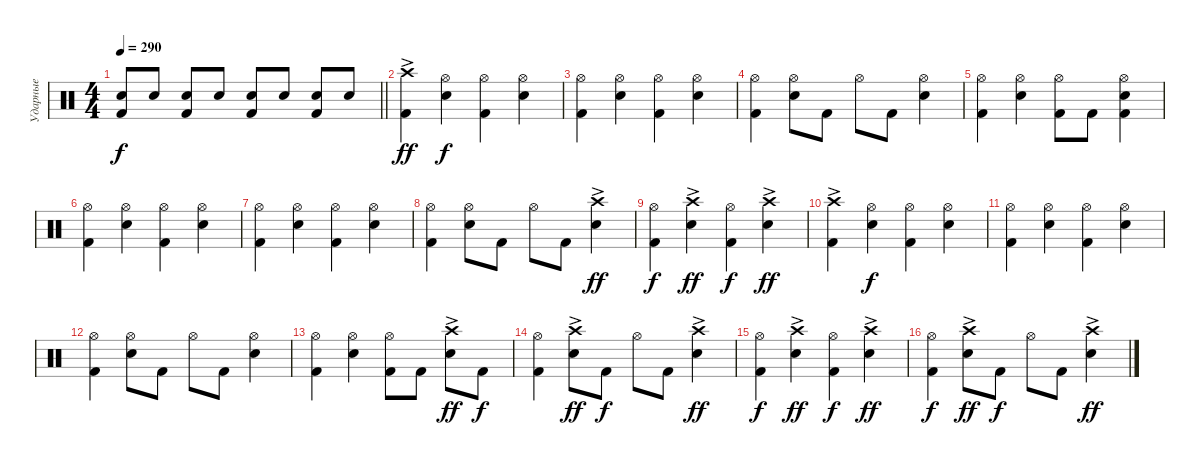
\track ("Ударные" "Ударные") {instrument percussion}
\staff {score}
\articulation defaults
\ts (4 4)
\tempo 290
\clef neutral
\barLineRight lightlight
\ks c
("Kick (hit) 2" "Snare (hit) 2").8{dy f} "Snare (hit) 2".8 ("Kick (hit) 2" "Snare (hit) 2").8 "Snare (hit) 2".8 ("Kick (hit) 2" "Snare (hit) 2").8 "Snare (hit) 2".8 ("Kick (hit) 2" "Snare (hit) 2").8 "Snare (hit) 2".8 |
("Kick (hit) 2" "Crash high (hit)"{ac}).4{dy ff} ("Snare (hit) 2" "Hi-Hat (open)").4{dy f} ("Kick (hit) 2" "Hi-Hat (open)").4 ("Snare (hit) 2" "Hi-Hat (open)").4 |
("Kick (hit) 2" "Hi-Hat (open)").4 ("Snare (hit) 2" "Hi-Hat (open)").4 ("Kick (hit) 2" "Hi-Hat (open)").4 ("Snare (hit) 2" "Hi-Hat (open)").4 |
("Kick (hit) 2" "Hi-Hat (open)").4 ("Snare (hit) 2" "Hi-Hat (open)").8 "Kick (hit) 2".8 "Hi-Hat (open)".8 "Kick (hit) 2".8 ("Snare (hit) 2" "Hi-Hat (open)").4 |
("Kick (hit) 2" "Hi-Hat (open)").4 ("Snare (hit) 2" "Hi-Hat (open)").4 ("Kick (hit) 2" "Hi-Hat (open)").8 "Kick (hit) 2".8 ("Kick (hit) 2" "Snare (hit) 2" "Hi-Hat (open)").4 |
("Kick (hit) 2" "Hi-Hat (open)").4 ("Snare (hit) 2" "Hi-Hat (open)").4 ("Kick (hit) 2" "Hi-Hat (open)").4 ("Snare (hit) 2" "Hi-Hat (open)").4 |
("Kick (hit) 2" "Hi-Hat (open)").4 ("Snare (hit) 2" "Hi-Hat (open)").4 ("Kick (hit) 2" "Hi-Hat (open)").4 ("Snare (hit) 2" "Hi-Hat (open)").4 |
("Kick (hit) 2" "Hi-Hat (open)").4 ("Snare (hit) 2" "Hi-Hat (open)").8 "Kick (hit) 2".8 "Hi-Hat (open)".8 "Kick (hit) 2".8 ("Snare (hit) 2" "Crash high (hit)"{ac}).4{dy ff} |
("Kick (hit) 2" "Hi-Hat (open)").4{dy f} ("Snare (hit) 2" "Crash high (hit)"{ac}).4{dy ff} ("Kick (hit) 2" "Hi-Hat (open)").4{dy f} ("Snare (hit) 2" "Crash high (hit)"{ac}).4{dy ff} |
("Kick (hit) 2" "Crash high (hit)"{ac}).4 ("Snare (hit) 2" "Hi-Hat (open)").4{dy f} ("Kick (hit) 2" "Hi-Hat (open)").4 ("Snare (hit) 2" "Hi-Hat (open)").4 |
("Kick (hit) 2" "Hi-Hat (open)").4 ("Snare (hit) 2" "Hi-Hat (open)").4 ("Kick (hit) 2" "Hi-Hat (open)").4 ("Snare (hit) 2" "Hi-Hat (open)").4 |
("Kick (hit) 2" "Hi-Hat (open)").4 ("Snare (hit) 2" "Hi-Hat (open)").8 "Kick (hit) 2".8 "Hi-Hat (open)".8 "Kick (hit) 2".8 ("Snare (hit) 2" "Hi-Hat (open)").4 |
("Kick (hit) 2" "Hi-Hat (open)").4 ("Snare (hit) 2" "Hi-Hat (open)").4 ("Kick (hit) 2" "Hi-Hat (open)").8 "Kick (hit) 2".8 ("Snare (hit) 2" "Crash high (hit)"{ac}).8{dy ff} "Kick (hit) 2".8{dy f} |
("Kick (hit) 2" "Hi-Hat (open)").4 ("Snare (hit) 2" "Crash high (hit)"{ac}).8{dy ff} "Kick (hit) 2".8{dy f} "Hi-Hat (open)".8 "Kick (hit) 2".8 ("Snare (hit) 2" "Crash high (hit)"{ac}).4{dy ff} |
("Kick (hit) 2" "Hi-Hat (open)").4{dy f} ("Snare (hit) 2" "Crash high (hit)"{ac}).4{dy ff} ("Kick (hit) 2" "Hi-Hat (open)").4{dy f} ("Snare (hit) 2" "Crash high (hit)"{ac}).4{dy ff} |
("Kick (hit) 2" "Hi-Hat (open)").4{dy f} ("Snare (hit) 2" "Crash high (hit)"{ac}).8{dy ff} "Kick (hit) 2".8{dy f} "Hi-Hat (open)".8 "Kick (hit) 2".8 ("Snare (hit) 2" "Crash high (hit)"{ac}).4{dy ff}
